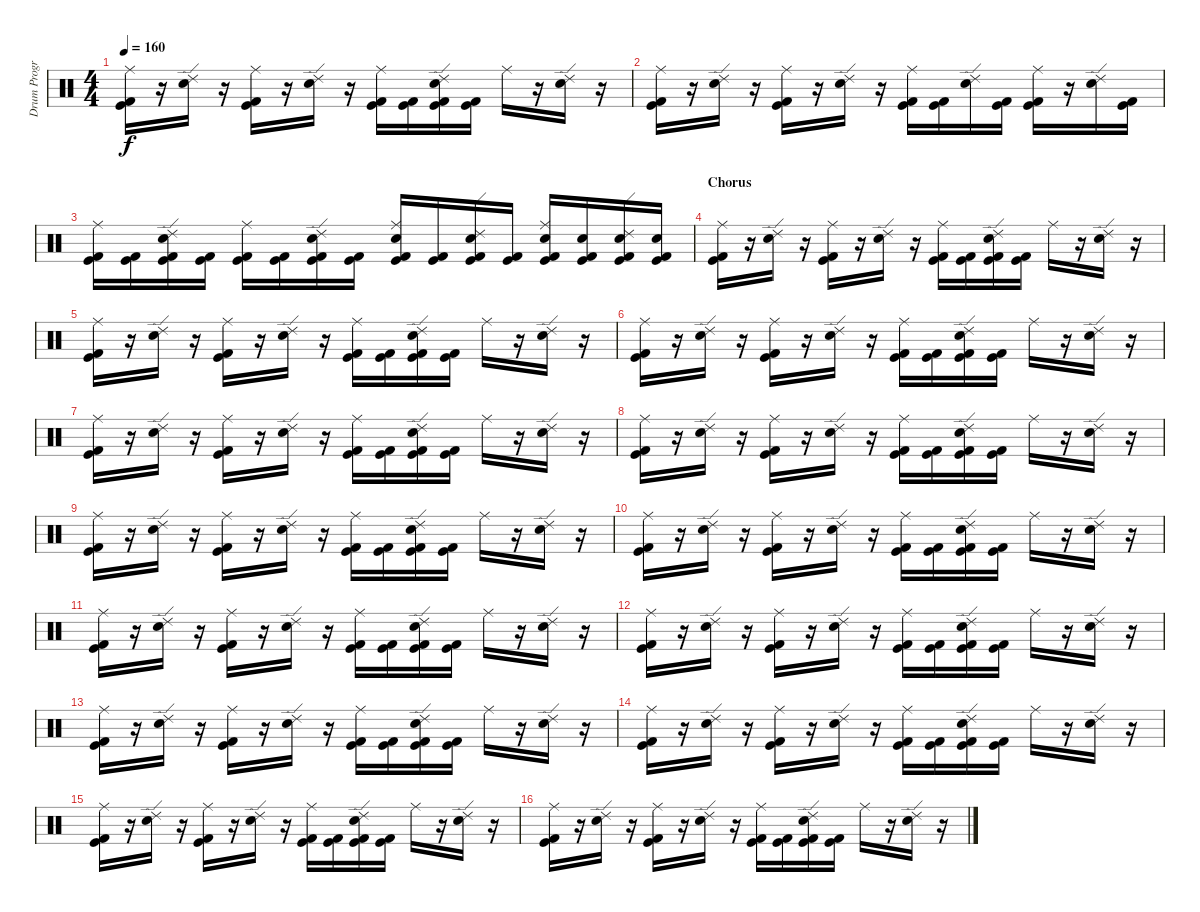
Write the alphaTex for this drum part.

\track ("Drum Program - BG" "Drum Progr") {instrument percussion}
\staff {score}
\articulation defaults
\ts (4 4)
\tempo 160
\clef neutral
\ks c
("Kick (hit) 2" "Kick (hit)" "Ride (middle)").16{dy f} r.16 ("Electric Snare (hit)" "Ride (edge) 2").16 r.16 ("Kick (hit)" "Kick (hit) 2" "Ride (middle)").16 r.16 ("Electric Snare (hit)" "Ride (edge) 2").16 r.16 ("Kick (hit)" "Kick (hit) 2" "Ride (middle)").16 ("Kick (hit)" "Kick (hit) 2").16 ("Kick (hit)" "Kick (hit) 2" "Electric Snare (hit)" "Ride (edge) 2").16 ("Kick (hit)" "Kick (hit) 2").16 "Ride (middle)".16 r.16 ("Electric Snare (hit)" "Ride (edge) 2").16 r.16 |
("Kick (hit) 2" "Kick (hit)" "Ride (middle)").16 r.16 ("Electric Snare (hit)" "Ride (edge) 2").16 r.16 ("Kick (hit)" "Kick (hit) 2" "Ride (middle)").16 r.16 ("Electric Snare (hit)" "Ride (edge) 2").16 r.16 ("Kick (hit)" "Kick (hit) 2" "Ride (middle)").16 ("Kick (hit)" "Kick (hit) 2").16 ("Electric Snare (hit)" "Ride (edge) 2").16 ("Kick (hit)" "Kick (hit) 2").16 ("Kick (hit)" "Kick (hit) 2" "Ride (middle)").16 r.16 ("Electric Snare (hit)" "Ride (edge) 2").16 ("Kick (hit)" "Kick (hit) 2").16 |
("Kick (hit)" "Kick (hit) 2" "Ride (middle)").16 ("Kick (hit)" "Kick (hit) 2").16 ("Kick (hit)" "Kick (hit) 2" "Electric Snare (hit)" "Ride (edge) 2").16 ("Kick (hit)" "Kick (hit) 2").16 ("Kick (hit)" "Kick (hit) 2" "Ride (middle)").16 ("Kick (hit)" "Kick (hit) 2").16 ("Kick (hit)" "Kick (hit) 2" "Electric Snare (hit)" "Ride (edge) 2").16 ("Kick (hit)" "Kick (hit) 2").16 ("Kick (hit)" "Kick (hit) 2" "Electric Snare (hit)" "Ride (middle)").16 ("Kick (hit)" "Kick (hit) 2").16 ("Kick (hit)" "Kick (hit) 2" "Electric Snare (hit)" "Ride (edge) 2").16 ("Kick (hit)" "Kick (hit) 2").16 ("Kick (hit)" "Kick (hit) 2" "Electric Snare (hit)" "Ride (middle)").16 ("Kick (hit)" "Kick (hit) 2" "Electric Snare (hit)").16 ("Kick (hit)" "Kick (hit) 2" "Electric Snare (hit)" "Ride (edge) 2").16 ("Kick (hit)" "Kick (hit) 2" "Electric Snare (hit)").16 |
\section ("" "Chorus")
("Kick (hit) 2" "Kick (hit)" "Ride (middle)").16 r.16 ("Electric Snare (hit)" "Ride (edge) 2").16 r.16 ("Kick (hit)" "Kick (hit) 2" "Ride (middle)").16 r.16 ("Electric Snare (hit)" "Ride (edge) 2").16 r.16 ("Kick (hit)" "Kick (hit) 2" "Ride (middle)").16 ("Kick (hit)" "Kick (hit) 2").16 ("Kick (hit)" "Kick (hit) 2" "Electric Snare (hit)" "Ride (edge) 2").16 ("Kick (hit)" "Kick (hit) 2").16 "Ride (middle)".16 r.16 ("Electric Snare (hit)" "Ride (edge) 2").16 r.16 |
("Kick (hit) 2" "Kick (hit)" "Ride (middle)").16 r.16 ("Electric Snare (hit)" "Ride (edge) 2").16 r.16 ("Kick (hit)" "Kick (hit) 2" "Ride (middle)").16 r.16 ("Electric Snare (hit)" "Ride (edge) 2").16 r.16 ("Kick (hit)" "Kick (hit) 2" "Ride (middle)").16 ("Kick (hit)" "Kick (hit) 2").16 ("Kick (hit)" "Kick (hit) 2" "Electric Snare (hit)" "Ride (edge) 2").16 ("Kick (hit)" "Kick (hit) 2").16 "Ride (middle)".16 r.16 ("Electric Snare (hit)" "Ride (edge) 2").16 r.16 |
("Kick (hit) 2" "Kick (hit)" "Ride (middle)").16 r.16 ("Electric Snare (hit)" "Ride (edge) 2").16 r.16 ("Kick (hit)" "Kick (hit) 2" "Ride (middle)").16 r.16 ("Electric Snare (hit)" "Ride (edge) 2").16 r.16 ("Kick (hit)" "Kick (hit) 2" "Ride (middle)").16 ("Kick (hit)" "Kick (hit) 2").16 ("Kick (hit)" "Kick (hit) 2" "Electric Snare (hit)" "Ride (edge) 2").16 ("Kick (hit)" "Kick (hit) 2").16 "Ride (middle)".16 r.16 ("Electric Snare (hit)" "Ride (edge) 2").16 r.16 |
("Kick (hit) 2" "Kick (hit)" "Ride (middle)").16 r.16 ("Electric Snare (hit)" "Ride (edge) 2").16 r.16 ("Kick (hit)" "Kick (hit) 2" "Ride (middle)").16 r.16 ("Electric Snare (hit)" "Ride (edge) 2").16 r.16 ("Kick (hit)" "Kick (hit) 2" "Ride (middle)").16 ("Kick (hit)" "Kick (hit) 2").16 ("Kick (hit)" "Kick (hit) 2" "Electric Snare (hit)" "Ride (edge) 2").16 ("Kick (hit)" "Kick (hit) 2").16 "Ride (middle)".16 r.16 ("Electric Snare (hit)" "Ride (edge) 2").16 r.16 |
("Kick (hit) 2" "Kick (hit)" "Ride (middle)").16 r.16 ("Electric Snare (hit)" "Ride (edge) 2").16 r.16 ("Kick (hit)" "Kick (hit) 2" "Ride (middle)").16 r.16 ("Electric Snare (hit)" "Ride (edge) 2").16 r.16 ("Kick (hit)" "Kick (hit) 2" "Ride (middle)").16 ("Kick (hit)" "Kick (hit) 2").16 ("Kick (hit)" "Kick (hit) 2" "Electric Snare (hit)" "Ride (edge) 2").16 ("Kick (hit)" "Kick (hit) 2").16 "Ride (middle)".16 r.16 ("Electric Snare (hit)" "Ride (edge) 2").16 r.16 |
("Kick (hit) 2" "Kick (hit)" "Ride (middle)").16 r.16 ("Electric Snare (hit)" "Ride (edge) 2").16 r.16 ("Kick (hit)" "Kick (hit) 2" "Ride (middle)").16 r.16 ("Electric Snare (hit)" "Ride (edge) 2").16 r.16 ("Kick (hit)" "Kick (hit) 2" "Ride (middle)").16 ("Kick (hit)" "Kick (hit) 2").16 ("Kick (hit)" "Kick (hit) 2" "Electric Snare (hit)" "Ride (edge) 2").16 ("Kick (hit)" "Kick (hit) 2").16 "Ride (middle)".16 r.16 ("Electric Snare (hit)" "Ride (edge) 2").16 r.16 |
("Kick (hit) 2" "Kick (hit)" "Ride (middle)").16 r.16 ("Electric Snare (hit)" "Ride (edge) 2").16 r.16 ("Kick (hit)" "Kick (hit) 2" "Ride (middle)").16 r.16 ("Electric Snare (hit)" "Ride (edge) 2").16 r.16 ("Kick (hit)" "Kick (hit) 2" "Ride (middle)").16 ("Kick (hit)" "Kick (hit) 2").16 ("Kick (hit)" "Kick (hit) 2" "Electric Snare (hit)" "Ride (edge) 2").16 ("Kick (hit)" "Kick (hit) 2").16 "Ride (middle)".16 r.16 ("Electric Snare (hit)" "Ride (edge) 2").16 r.16 |
("Kick (hit) 2" "Kick (hit)" "Ride (middle)").16 r.16 ("Electric Snare (hit)" "Ride (edge) 2").16 r.16 ("Kick (hit)" "Kick (hit) 2" "Ride (middle)").16 r.16 ("Electric Snare (hit)" "Ride (edge) 2").16 r.16 ("Kick (hit)" "Kick (hit) 2" "Ride (middle)").16 ("Kick (hit)" "Kick (hit) 2").16 ("Kick (hit)" "Kick (hit) 2" "Electric Snare (hit)" "Ride (edge) 2").16 ("Kick (hit)" "Kick (hit) 2").16 "Ride (middle)".16 r.16 ("Electric Snare (hit)" "Ride (edge) 2").16 r.16 |
("Kick (hit) 2" "Kick (hit)" "Ride (middle)").16 r.16 ("Electric Snare (hit)" "Ride (edge) 2").16 r.16 ("Kick (hit)" "Kick (hit) 2" "Ride (middle)").16 r.16 ("Electric Snare (hit)" "Ride (edge) 2").16 r.16 ("Kick (hit)" "Kick (hit) 2" "Ride (middle)").16 ("Kick (hit)" "Kick (hit) 2").16 ("Kick (hit)" "Kick (hit) 2" "Electric Snare (hit)" "Ride (edge) 2").16 ("Kick (hit)" "Kick (hit) 2").16 "Ride (middle)".16 r.16 ("Electric Snare (hit)" "Ride (edge) 2").16 r.16 |
("Kick (hit) 2" "Kick (hit)" "Ride (middle)").16 r.16 ("Electric Snare (hit)" "Ride (edge) 2").16 r.16 ("Kick (hit)" "Kick (hit) 2" "Ride (middle)").16 r.16 ("Electric Snare (hit)" "Ride (edge) 2").16 r.16 ("Kick (hit)" "Kick (hit) 2" "Ride (middle)").16 ("Kick (hit)" "Kick (hit) 2").16 ("Kick (hit)" "Kick (hit) 2" "Electric Snare (hit)" "Ride (edge) 2").16 ("Kick (hit)" "Kick (hit) 2").16 "Ride (middle)".16 r.16 ("Electric Snare (hit)" "Ride (edge) 2").16 r.16 |
("Kick (hit) 2" "Kick (hit)" "Ride (middle)").16 r.16 ("Electric Snare (hit)" "Ride (edge) 2").16 r.16 ("Kick (hit)" "Kick (hit) 2" "Ride (middle)").16 r.16 ("Electric Snare (hit)" "Ride (edge) 2").16 r.16 ("Kick (hit)" "Kick (hit) 2" "Ride (middle)").16 ("Kick (hit)" "Kick (hit) 2").16 ("Kick (hit)" "Kick (hit) 2" "Electric Snare (hit)" "Ride (edge) 2").16 ("Kick (hit)" "Kick (hit) 2").16 "Ride (middle)".16 r.16 ("Electric Snare (hit)" "Ride (edge) 2").16 r.16 |
("Kick (hit) 2" "Kick (hit)" "Ride (middle)").16 r.16 ("Electric Snare (hit)" "Ride (edge) 2").16 r.16 ("Kick (hit)" "Kick (hit) 2" "Ride (middle)").16 r.16 ("Electric Snare (hit)" "Ride (edge) 2").16 r.16 ("Kick (hit)" "Kick (hit) 2" "Ride (middle)").16 ("Kick (hit)" "Kick (hit) 2").16 ("Kick (hit)" "Kick (hit) 2" "Electric Snare (hit)" "Ride (edge) 2").16 ("Kick (hit)" "Kick (hit) 2").16 "Ride (middle)".16 r.16 ("Electric Snare (hit)" "Ride (edge) 2").16 r.16 |
("Kick (hit) 2" "Kick (hit)" "Ride (middle)").16 r.16 ("Electric Snare (hit)" "Ride (edge) 2").16 r.16 ("Kick (hit)" "Kick (hit) 2" "Ride (middle)").16 r.16 ("Electric Snare (hit)" "Ride (edge) 2").16 r.16 ("Kick (hit)" "Kick (hit) 2" "Ride (middle)").16 ("Kick (hit)" "Kick (hit) 2").16 ("Kick (hit)" "Kick (hit) 2" "Electric Snare (hit)" "Ride (edge) 2").16 ("Kick (hit)" "Kick (hit) 2").16 "Ride (middle)".16 r.16 ("Electric Snare (hit)" "Ride (edge) 2").16 r.16
